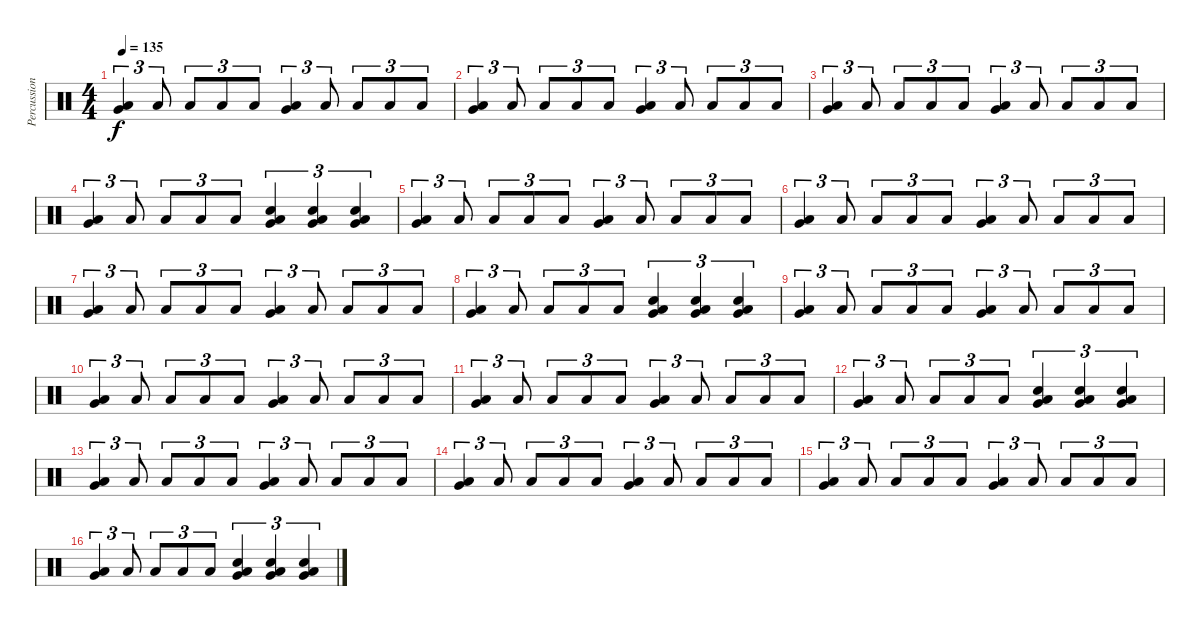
\track ("Percussion" "Percussion") {instrument percussion}
\staff {score}
\articulation defaults
\ts (4 4)
\tempo 135
\clef neutral
\ks c
("Very Low Tom (hit)" "Low Floor Tom (hit)").4{tu (3 2) dy f} "Low Floor Tom (hit)".8{tu (3 2)} "Low Floor Tom (hit)".8{tu (3 2)} "Low Floor Tom (hit)".8{tu (3 2)} "Low Floor Tom (hit)".8{tu (3 2)} ("Very Low Tom (hit)" "Low Floor Tom (hit)").4{tu (3 2)} "Low Floor Tom (hit)".8{tu (3 2)} "Low Floor Tom (hit)".8{tu (3 2)} "Low Floor Tom (hit)".8{tu (3 2)} "Low Floor Tom (hit)".8{tu (3 2)} |
("Very Low Tom (hit)" "Low Floor Tom (hit)").4{tu (3 2)} "Low Floor Tom (hit)".8{tu (3 2)} "Low Floor Tom (hit)".8{tu (3 2)} "Low Floor Tom (hit)".8{tu (3 2)} "Low Floor Tom (hit)".8{tu (3 2)} ("Very Low Tom (hit)" "Low Floor Tom (hit)").4{tu (3 2)} "Low Floor Tom (hit)".8{tu (3 2)} "Low Floor Tom (hit)".8{tu (3 2)} "Low Floor Tom (hit)".8{tu (3 2)} "Low Floor Tom (hit)".8{tu (3 2)} |
("Very Low Tom (hit)" "Low Floor Tom (hit)").4{tu (3 2)} "Low Floor Tom (hit)".8{tu (3 2)} "Low Floor Tom (hit)".8{tu (3 2)} "Low Floor Tom (hit)".8{tu (3 2)} "Low Floor Tom (hit)".8{tu (3 2)} ("Very Low Tom (hit)" "Low Floor Tom (hit)").4{tu (3 2)} "Low Floor Tom (hit)".8{tu (3 2)} "Low Floor Tom (hit)".8{tu (3 2)} "Low Floor Tom (hit)".8{tu (3 2)} "Low Floor Tom (hit)".8{tu (3 2)} |
("Very Low Tom (hit)" "Low Floor Tom (hit)").4{tu (3 2)} "Low Floor Tom (hit)".8{tu (3 2)} "Low Floor Tom (hit)".8{tu (3 2)} "Low Floor Tom (hit)".8{tu (3 2)} "Low Floor Tom (hit)".8{tu (3 2)} ("Hand Clap (hit)" "Very Low Tom (hit)" "Low Floor Tom (hit)").4{tu (3 2)} ("Hand Clap (hit)" "Very Low Tom (hit)" "Low Floor Tom (hit)").4{tu (3 2)} ("Hand Clap (hit)" "Very Low Tom (hit)" "Low Floor Tom (hit)").4{tu (3 2)} |
("Very Low Tom (hit)" "Low Floor Tom (hit)").4{tu (3 2)} "Low Floor Tom (hit)".8{tu (3 2)} "Low Floor Tom (hit)".8{tu (3 2)} "Low Floor Tom (hit)".8{tu (3 2)} "Low Floor Tom (hit)".8{tu (3 2)} ("Very Low Tom (hit)" "Low Floor Tom (hit)").4{tu (3 2)} "Low Floor Tom (hit)".8{tu (3 2)} "Low Floor Tom (hit)".8{tu (3 2)} "Low Floor Tom (hit)".8{tu (3 2)} "Low Floor Tom (hit)".8{tu (3 2)} |
("Very Low Tom (hit)" "Low Floor Tom (hit)").4{tu (3 2)} "Low Floor Tom (hit)".8{tu (3 2)} "Low Floor Tom (hit)".8{tu (3 2)} "Low Floor Tom (hit)".8{tu (3 2)} "Low Floor Tom (hit)".8{tu (3 2)} ("Very Low Tom (hit)" "Low Floor Tom (hit)").4{tu (3 2)} "Low Floor Tom (hit)".8{tu (3 2)} "Low Floor Tom (hit)".8{tu (3 2)} "Low Floor Tom (hit)".8{tu (3 2)} "Low Floor Tom (hit)".8{tu (3 2)} |
("Very Low Tom (hit)" "Low Floor Tom (hit)").4{tu (3 2)} "Low Floor Tom (hit)".8{tu (3 2)} "Low Floor Tom (hit)".8{tu (3 2)} "Low Floor Tom (hit)".8{tu (3 2)} "Low Floor Tom (hit)".8{tu (3 2)} ("Very Low Tom (hit)" "Low Floor Tom (hit)").4{tu (3 2)} "Low Floor Tom (hit)".8{tu (3 2)} "Low Floor Tom (hit)".8{tu (3 2)} "Low Floor Tom (hit)".8{tu (3 2)} "Low Floor Tom (hit)".8{tu (3 2)} |
("Very Low Tom (hit)" "Low Floor Tom (hit)").4{tu (3 2)} "Low Floor Tom (hit)".8{tu (3 2)} "Low Floor Tom (hit)".8{tu (3 2)} "Low Floor Tom (hit)".8{tu (3 2)} "Low Floor Tom (hit)".8{tu (3 2)} ("Hand Clap (hit)" "Very Low Tom (hit)" "Low Floor Tom (hit)").4{tu (3 2)} ("Hand Clap (hit)" "Very Low Tom (hit)" "Low Floor Tom (hit)").4{tu (3 2)} ("Hand Clap (hit)" "Very Low Tom (hit)" "Low Floor Tom (hit)").4{tu (3 2)} |
("Very Low Tom (hit)" "Low Floor Tom (hit)").4{tu (3 2)} "Low Floor Tom (hit)".8{tu (3 2)} "Low Floor Tom (hit)".8{tu (3 2)} "Low Floor Tom (hit)".8{tu (3 2)} "Low Floor Tom (hit)".8{tu (3 2)} ("Very Low Tom (hit)" "Low Floor Tom (hit)").4{tu (3 2)} "Low Floor Tom (hit)".8{tu (3 2)} "Low Floor Tom (hit)".8{tu (3 2)} "Low Floor Tom (hit)".8{tu (3 2)} "Low Floor Tom (hit)".8{tu (3 2)} |
("Very Low Tom (hit)" "Low Floor Tom (hit)").4{tu (3 2)} "Low Floor Tom (hit)".8{tu (3 2)} "Low Floor Tom (hit)".8{tu (3 2)} "Low Floor Tom (hit)".8{tu (3 2)} "Low Floor Tom (hit)".8{tu (3 2)} ("Very Low Tom (hit)" "Low Floor Tom (hit)").4{tu (3 2)} "Low Floor Tom (hit)".8{tu (3 2)} "Low Floor Tom (hit)".8{tu (3 2)} "Low Floor Tom (hit)".8{tu (3 2)} "Low Floor Tom (hit)".8{tu (3 2)} |
("Very Low Tom (hit)" "Low Floor Tom (hit)").4{tu (3 2)} "Low Floor Tom (hit)".8{tu (3 2)} "Low Floor Tom (hit)".8{tu (3 2)} "Low Floor Tom (hit)".8{tu (3 2)} "Low Floor Tom (hit)".8{tu (3 2)} ("Very Low Tom (hit)" "Low Floor Tom (hit)").4{tu (3 2)} "Low Floor Tom (hit)".8{tu (3 2)} "Low Floor Tom (hit)".8{tu (3 2)} "Low Floor Tom (hit)".8{tu (3 2)} "Low Floor Tom (hit)".8{tu (3 2)} |
("Very Low Tom (hit)" "Low Floor Tom (hit)").4{tu (3 2)} "Low Floor Tom (hit)".8{tu (3 2)} "Low Floor Tom (hit)".8{tu (3 2)} "Low Floor Tom (hit)".8{tu (3 2)} "Low Floor Tom (hit)".8{tu (3 2)} ("Hand Clap (hit)" "Very Low Tom (hit)" "Low Floor Tom (hit)").4{tu (3 2)} ("Hand Clap (hit)" "Very Low Tom (hit)" "Low Floor Tom (hit)").4{tu (3 2)} ("Hand Clap (hit)" "Very Low Tom (hit)" "Low Floor Tom (hit)").4{tu (3 2)} |
("Very Low Tom (hit)" "Low Floor Tom (hit)").4{tu (3 2)} "Low Floor Tom (hit)".8{tu (3 2)} "Low Floor Tom (hit)".8{tu (3 2)} "Low Floor Tom (hit)".8{tu (3 2)} "Low Floor Tom (hit)".8{tu (3 2)} ("Very Low Tom (hit)" "Low Floor Tom (hit)").4{tu (3 2)} "Low Floor Tom (hit)".8{tu (3 2)} "Low Floor Tom (hit)".8{tu (3 2)} "Low Floor Tom (hit)".8{tu (3 2)} "Low Floor Tom (hit)".8{tu (3 2)} |
("Very Low Tom (hit)" "Low Floor Tom (hit)").4{tu (3 2)} "Low Floor Tom (hit)".8{tu (3 2)} "Low Floor Tom (hit)".8{tu (3 2)} "Low Floor Tom (hit)".8{tu (3 2)} "Low Floor Tom (hit)".8{tu (3 2)} ("Very Low Tom (hit)" "Low Floor Tom (hit)").4{tu (3 2)} "Low Floor Tom (hit)".8{tu (3 2)} "Low Floor Tom (hit)".8{tu (3 2)} "Low Floor Tom (hit)".8{tu (3 2)} "Low Floor Tom (hit)".8{tu (3 2)} |
("Very Low Tom (hit)" "Low Floor Tom (hit)").4{tu (3 2)} "Low Floor Tom (hit)".8{tu (3 2)} "Low Floor Tom (hit)".8{tu (3 2)} "Low Floor Tom (hit)".8{tu (3 2)} "Low Floor Tom (hit)".8{tu (3 2)} ("Very Low Tom (hit)" "Low Floor Tom (hit)").4{tu (3 2)} "Low Floor Tom (hit)".8{tu (3 2)} "Low Floor Tom (hit)".8{tu (3 2)} "Low Floor Tom (hit)".8{tu (3 2)} "Low Floor Tom (hit)".8{tu (3 2)} |
("Very Low Tom (hit)" "Low Floor Tom (hit)").4{tu (3 2)} "Low Floor Tom (hit)".8{tu (3 2)} "Low Floor Tom (hit)".8{tu (3 2)} "Low Floor Tom (hit)".8{tu (3 2)} "Low Floor Tom (hit)".8{tu (3 2)} ("Hand Clap (hit)" "Very Low Tom (hit)" "Low Floor Tom (hit)").4{tu (3 2)} ("Hand Clap (hit)" "Very Low Tom (hit)" "Low Floor Tom (hit)").4{tu (3 2)} ("Hand Clap (hit)" "Very Low Tom (hit)" "Low Floor Tom (hit)").4{tu (3 2)}
